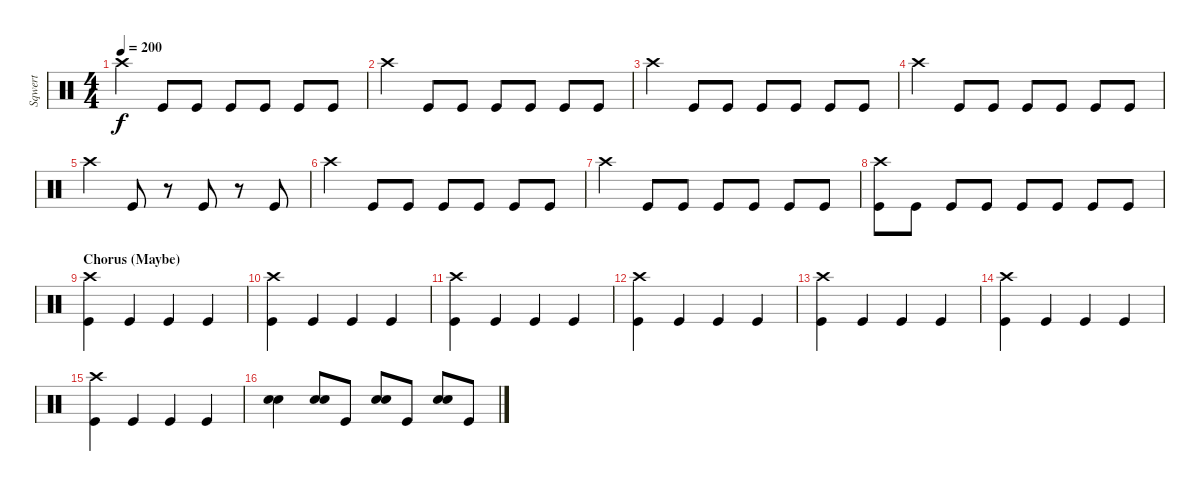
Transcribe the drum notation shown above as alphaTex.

\track ("Sqwert" "Sqwert") {instrument percussion}
\staff {score}
\articulation defaults
\ts (4 4)
\tempo 200
\clef neutral
\ks c "Crash high (hit)".4{dy f} "Kick (hit)".8 "Kick (hit)".8 "Kick (hit)".8 "Kick (hit)".8 "Kick (hit)".8 "Kick (hit)".8
|
"Crash high (hit)".4 "Kick (hit)".8 "Kick (hit)".8 "Kick (hit)".8 "Kick (hit)".8 "Kick (hit)".8 "Kick (hit)".8 |
"Crash high (hit)".4 "Kick (hit)".8 "Kick (hit)".8 "Kick (hit)".8 "Kick (hit)".8 "Kick (hit)".8 "Kick (hit)".8 |
"Crash high (hit)".4 "Kick (hit)".8 "Kick (hit)".8 "Kick (hit)".8 "Kick (hit)".8 "Kick (hit)".8 "Kick (hit)".8 |
"Crash high (hit)".4 "Kick (hit)".8 r.8 "Kick (hit)".8 r.8 "Kick (hit)".8 |
"Crash high (hit)".4 "Kick (hit)".8 "Kick (hit)".8 "Kick (hit)".8 "Kick (hit)".8 "Kick (hit)".8 "Kick (hit)".8 |
"Crash high (hit)".4 "Kick (hit)".8 "Kick (hit)".8 "Kick (hit)".8 "Kick (hit)".8 "Kick (hit)".8 "Kick (hit)".8 |
("Crash high (hit)" "Kick (hit)").8 "Kick (hit)".8 "Kick (hit)".8 "Kick (hit)".8 "Kick (hit)".8 "Kick (hit)".8 "Kick (hit)".8 "Kick (hit)".8 |
\section ("" "Chorus (Maybe)")
("Crash high (hit)" "Kick (hit)").4 "Kick (hit)".4 "Kick (hit)".4 "Kick (hit)".4 |
("Crash high (hit)" "Kick (hit)").4 "Kick (hit)".4 "Kick (hit)".4 "Kick (hit)".4 |
("Crash high (hit)" "Kick (hit)").4 "Kick (hit)".4 "Kick (hit)".4 "Kick (hit)".4 |
("Crash high (hit)" "Kick (hit)").4 "Kick (hit)".4 "Kick (hit)".4 "Kick (hit)".4 |
("Crash high (hit)" "Kick (hit)").4 "Kick (hit)".4 "Kick (hit)".4 "Kick (hit)".4 |
("Crash high (hit)" "Kick (hit)").4 "Kick (hit)".4 "Kick (hit)".4 "Kick (hit)".4 |
("Crash high (hit)" "Kick (hit)").4 "Kick (hit)".4 "Kick (hit)".4 "Kick (hit)".4 |
("Snare (hit) 2" "Snare (hit) 2").4 ("Snare (hit) 2" "Snare (hit) 2").8 "Kick (hit)".8 ("Snare (hit) 2" "Snare (hit) 2").8 "Kick (hit)".8 ("Snare (hit) 2" "Snare (hit) 2").8 "Kick (hit)".8
